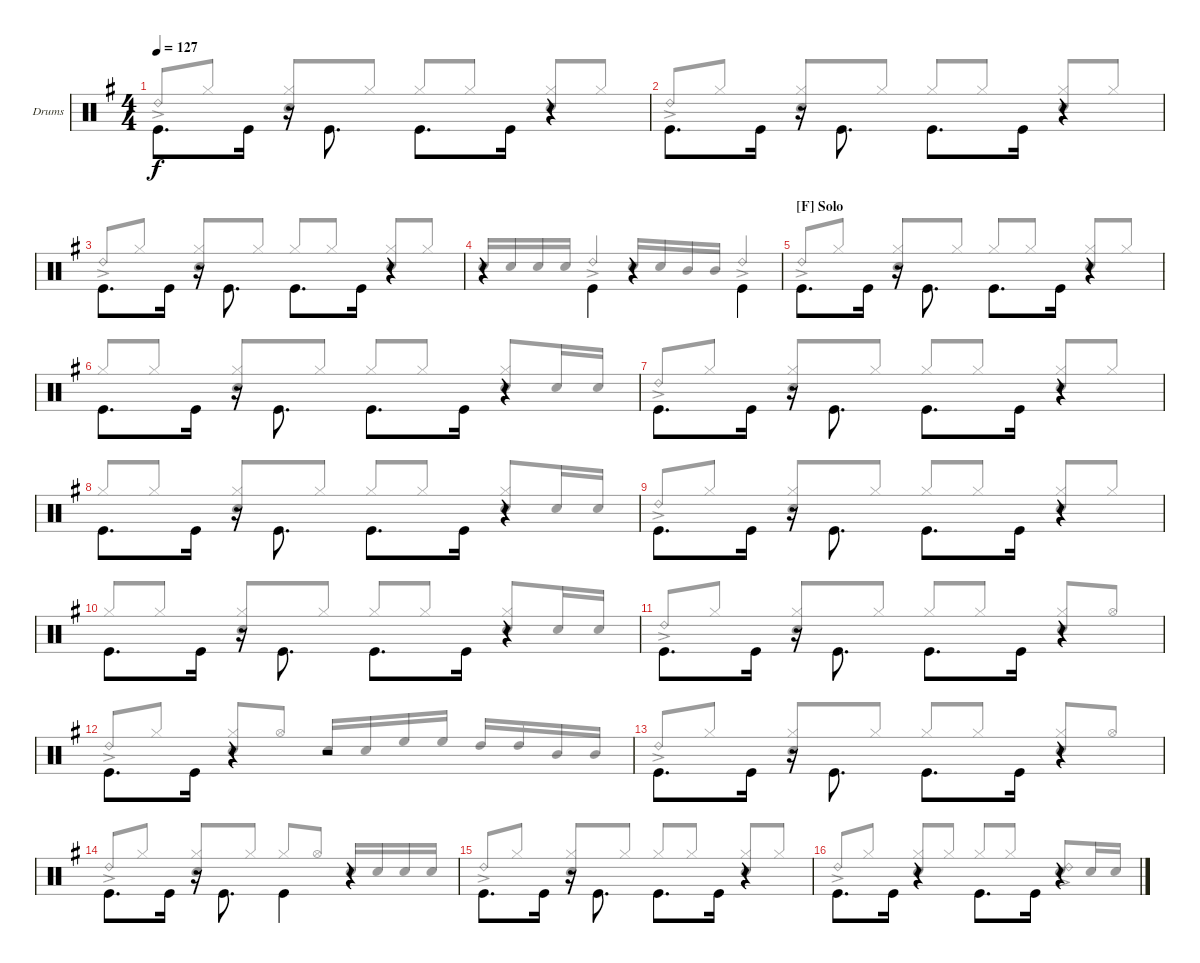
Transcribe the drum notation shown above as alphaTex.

\defaultSystemsLayout 4
\bracketExtendMode groupsimilarinstruments
\firstSystemTrackNameOrientation horizontal
\otherSystemsTrackNameOrientation horizontal
\track ("Drums" "Drums") {instrument percussion}
\staff {score}
\articulation defaults
\voice
\ts (4 4)
\tempo 127
\clef neutral
\scale
1.02648
\ks g "Kick (hit)".8{d dy f beam invert} "Kick (hit)".16
r.16{beam invert} "Kick (hit)".8{d beam invert} "Kick (hit)".8{d beam invert} "Kick (hit)".16 r.4 |
\scale
0.973518 "Kick (hit)".8{d beam invert} "Kick (hit)".16 r.16{beam invert} "Kick (hit)".8{d beam invert} "Kick (hit)".8{d beam invert} "Kick (hit)".16 r.4 |
\scale
1.02648 "Kick (hit)".8{d beam invert} "Kick (hit)".16 r.16{beam invert} "Kick (hit)".8{d beam invert} "Kick (hit)".8{d beam invert} "Kick (hit)".16 r.4 |
\scale
0.973518 r.4 "Kick (hit)".4{beam invert} r.4 "Kick (hit)".4{beam invert} |
\section ("F" "Solo")
\scale
1.02648 "Kick (hit)".8{d beam invert} "Kick (hit)".16 r.16{beam invert} "Kick (hit)".8{d beam invert} "Kick (hit)".8{d beam invert} "Kick (hit)".16 r.4 |
\scale
0.973518 "Kick (hit)".8{d beam invert} "Kick (hit)".16 r.16{beam invert} "Kick (hit)".8{d beam invert} "Kick (hit)".8{d beam invert} "Kick (hit)".16 r.4 |
\scale
1.07314 "Kick (hit)".8{d beam invert} "Kick (hit)".16 r.16{beam invert} "Kick (hit)".8{d beam invert} "Kick (hit)".8{d beam invert} "Kick (hit)".16 r.4 |
\scale
0.92686 "Kick (hit)".8{d beam invert} "Kick (hit)".16 r.16{beam invert} "Kick (hit)".8{d beam invert} "Kick (hit)".8{d beam invert} "Kick (hit)".16 r.4 |
\scale
1.04288 "Kick (hit)".8{d beam invert} "Kick (hit)".16 r.16{beam invert} "Kick (hit)".8{d beam invert} "Kick (hit)".8{d beam invert} "Kick (hit)".16 r.4 |
\scale
0.957125 "Kick (hit)".8{d beam invert} "Kick (hit)".16 r.16{beam invert} "Kick (hit)".8{d beam invert} "Kick (hit)".8{d beam invert} "Kick (hit)".16 r.4 |
\scale
1.04288 "Kick (hit)".8{d beam invert} "Kick (hit)".16 r.16{beam invert} "Kick (hit)".8{d beam invert} "Kick (hit)".8{d beam invert} "Kick (hit)".16 r.4 |
\scale
0.957125 "Kick (hit)".8{d beam invert} "Kick (hit)".16 r.4 r.2 |
\scale
1.04288 "Kick (hit)".8{d beam invert} "Kick (hit)".16 r.16{beam invert} "Kick (hit)".8{d beam invert} "Kick (hit)".8{d beam invert} "Kick (hit)".16 r.4 |
\scale
0.957125 "Kick (hit)".8{d beam invert} "Kick (hit)".16 r.16{beam invert} "Kick (hit)".8{d beam invert} "Kick (hit)".4{beam invert} r.4 |
\scale
1.04288 "Kick (hit)".8{d beam invert} "Kick (hit)".16 r.16{beam invert} "Kick (hit)".8{d beam invert} "Kick (hit)".8{d beam invert} "Kick (hit)".16 r.4 |
\scale
0.957125 "Kick (hit)".8{d beam invert} "Kick (hit)".16 r.4{beam invert} "Kick (hit)".8{d beam invert} "Kick (hit)".16 r.4{beam invert}
\voice
\clef neutral
\ottava regular
\simile none
\scale
1.02648
\ks g "Ride (bell) 2"{ac}.8{dy f beam invert} "Hi-Hat (closed)".8
("Hi-Hat (closed)" "Snare (hit) 2").8{beam invert} "Hi-Hat (closed)".8 "Hi-Hat (closed)".8{beam invert} "Hi-Hat (closed)".8 ("Hi-Hat (closed)" "Snare (hit) 2").8{beam invert} "Hi-Hat (closed)".8 |
\scale
0.973518 "Ride (bell) 2"{ac}.8{beam invert} "Hi-Hat (closed)".8 ("Hi-Hat (closed)" "Snare (hit) 2").8{beam invert} "Hi-Hat (closed)".8 "Hi-Hat (closed)".8{beam invert} "Hi-Hat (closed)".8 ("Hi-Hat (closed)" "Snare (hit) 2").8{beam invert} "Hi-Hat (closed)".8 |
\scale
1.02648 "Ride (bell) 2"{ac}.8{beam invert} "Hi-Hat (closed)".8 ("Hi-Hat (closed)" "Snare (hit) 2").8{beam invert} "Hi-Hat (closed)".8 "Hi-Hat (closed)".8{beam invert} "Hi-Hat (closed)".8 ("Hi-Hat (closed)" "Snare (hit) 2").8{beam invert} "Hi-Hat (closed)".8 |
\scale
0.973518 "Snare (hit) 2".16{beam invert} "Snare (hit) 2".16 "Snare (hit) 2".16 "Snare (hit) 2".16 "Ride (bell) 2"{ac}.4{beam invert} "Snare (hit) 2".16{beam invert} "Snare (hit) 2".16 "Mid Tom (hit)".16 "Mid Tom (hit)".16 "Ride (bell) 2"{ac}.4{beam invert} |
\scale
1.02648 "Ride (bell) 2"{ac}.8{beam invert} "Hi-Hat (closed)".8 ("Hi-Hat (closed)" "Snare (hit) 2").8{beam invert} "Hi-Hat (closed)".8 "Hi-Hat (closed)".8{beam invert} "Hi-Hat (closed)".8 ("Hi-Hat (closed)" "Snare (hit) 2").8{beam invert} "Hi-Hat (closed)".8 |
\scale
0.973518 "Hi-Hat (closed)".8{beam invert} "Hi-Hat (closed)".8 ("Hi-Hat (closed)" "Snare (hit) 2").8{beam invert} "Hi-Hat (closed)".8 "Hi-Hat (closed)".8{beam invert} "Hi-Hat (closed)".8 ("Hi-Hat (closed)" "Snare (hit) 2").8{beam invert} "Snare (hit) 2".16 "Snare (hit) 2".16 |
\scale
1.07314 "Ride (bell) 2"{ac}.8{beam invert} "Hi-Hat (closed)".8 ("Hi-Hat (closed)" "Snare (hit) 2").8{beam invert} "Hi-Hat (closed)".8 "Hi-Hat (closed)".8{beam invert} "Hi-Hat (closed)".8 ("Hi-Hat (closed)" "Snare (hit) 2").8{beam invert} "Hi-Hat (closed)".8 |
\scale
0.92686 "Hi-Hat (closed)".8{beam invert} "Hi-Hat (closed)".8 ("Hi-Hat (closed)" "Snare (hit) 2").8{beam invert} "Hi-Hat (closed)".8 "Hi-Hat (closed)".8{beam invert} "Hi-Hat (closed)".8 ("Hi-Hat (closed)" "Snare (hit) 2").8{beam invert} "Snare (hit) 2".16 "Snare (hit) 2".16 |
\scale
1.04288 "Ride (bell) 2"{ac}.8{beam invert} "Hi-Hat (closed)".8 ("Hi-Hat (closed)" "Snare (hit) 2").8{beam invert} "Hi-Hat (closed)".8 "Hi-Hat (closed)".8{beam invert} "Hi-Hat (closed)".8 ("Hi-Hat (closed)" "Snare (hit) 2").8{beam invert} "Hi-Hat (closed)".8 |
\scale
0.957125 "Hi-Hat (closed)".8{beam invert} "Hi-Hat (closed)".8 ("Hi-Hat (closed)" "Snare (hit) 2").8{beam invert} "Hi-Hat (closed)".8 "Hi-Hat (closed)".8{beam invert} "Hi-Hat (closed)".8 ("Hi-Hat (closed)" "Snare (hit) 2").8{beam invert} "Snare (hit) 2".16 "Snare (hit) 2".16 |
\scale
1.04288 "Ride (bell) 2"{ac}.8{beam invert} "Hi-Hat (closed)".8 ("Hi-Hat (closed)" "Snare (hit) 2").8{beam invert} "Hi-Hat (closed)".8 "Hi-Hat (closed)".8{beam invert} "Hi-Hat (closed)".8 ("Hi-Hat (closed)" "Snare (hit) 2").8{beam invert} "Hi-Hat (open)".8 |
\scale
0.957125 "Ride (bell) 2"{ac}.8{beam invert} "Hi-Hat (closed)".8 ("Hi-Hat (closed)" "Snare (hit) 2").8{beam invert} "Hi-Hat (open)".8 "Snare (hit) 2".16{beam invert} "Snare (hit) 2".16 "High Floor Tom (hit)".16 "High Floor Tom (hit)".16 "High Tom (hit)".16{beam invert} "High Tom (hit)".16 "Mid Tom (hit)".16 "Mid Tom (hit)".16 |
\scale
1.04288 "Ride (bell) 2"{ac}.8{beam invert} "Hi-Hat (closed)".8 ("Hi-Hat (closed)" "Snare (hit) 2").8{beam invert} "Hi-Hat (closed)".8 "Hi-Hat (closed)".8{beam invert} "Hi-Hat (closed)".8 ("Hi-Hat (closed)" "Snare (hit) 2").8{beam invert} "Hi-Hat (open)".8 |
\scale
0.957125 "Ride (bell) 2"{ac}.8{beam invert} "Hi-Hat (closed)".8 ("Hi-Hat (closed)" "Snare (hit) 2").8{beam invert} "Hi-Hat (closed)".8 "Hi-Hat (closed)".8{beam invert} "Hi-Hat (open)".8 "Snare (hit) 2".16{beam invert} "Snare (hit) 2".16 "Snare (hit) 2".16 "Snare (hit) 2".16 |
\scale
1.04288 "Ride (bell) 2"{ac}.8{beam invert} "Hi-Hat (closed)".8 ("Hi-Hat (closed)" "Snare (hit) 2").8{beam invert} "Hi-Hat (closed)".8 "Hi-Hat (closed)".8{beam invert} "Hi-Hat (closed)".8 ("Hi-Hat (closed)" "Snare (hit) 2").8{beam invert} "Hi-Hat (closed)".8 |
\scale
0.957125 "Ride (bell) 2"{ac}.8{beam invert} "Hi-Hat (closed)".8 ("Hi-Hat (closed)" "Snare (hit) 2").8{beam invert} "Hi-Hat (closed)".8 "Hi-Hat (closed)".8{beam invert} "Hi-Hat (closed)".8 ("Snare (hit) 2" "Ride (bell) 2"{ac}).8{beam invert} "Snare (hit) 2".16 "Snare (hit) 2".16
